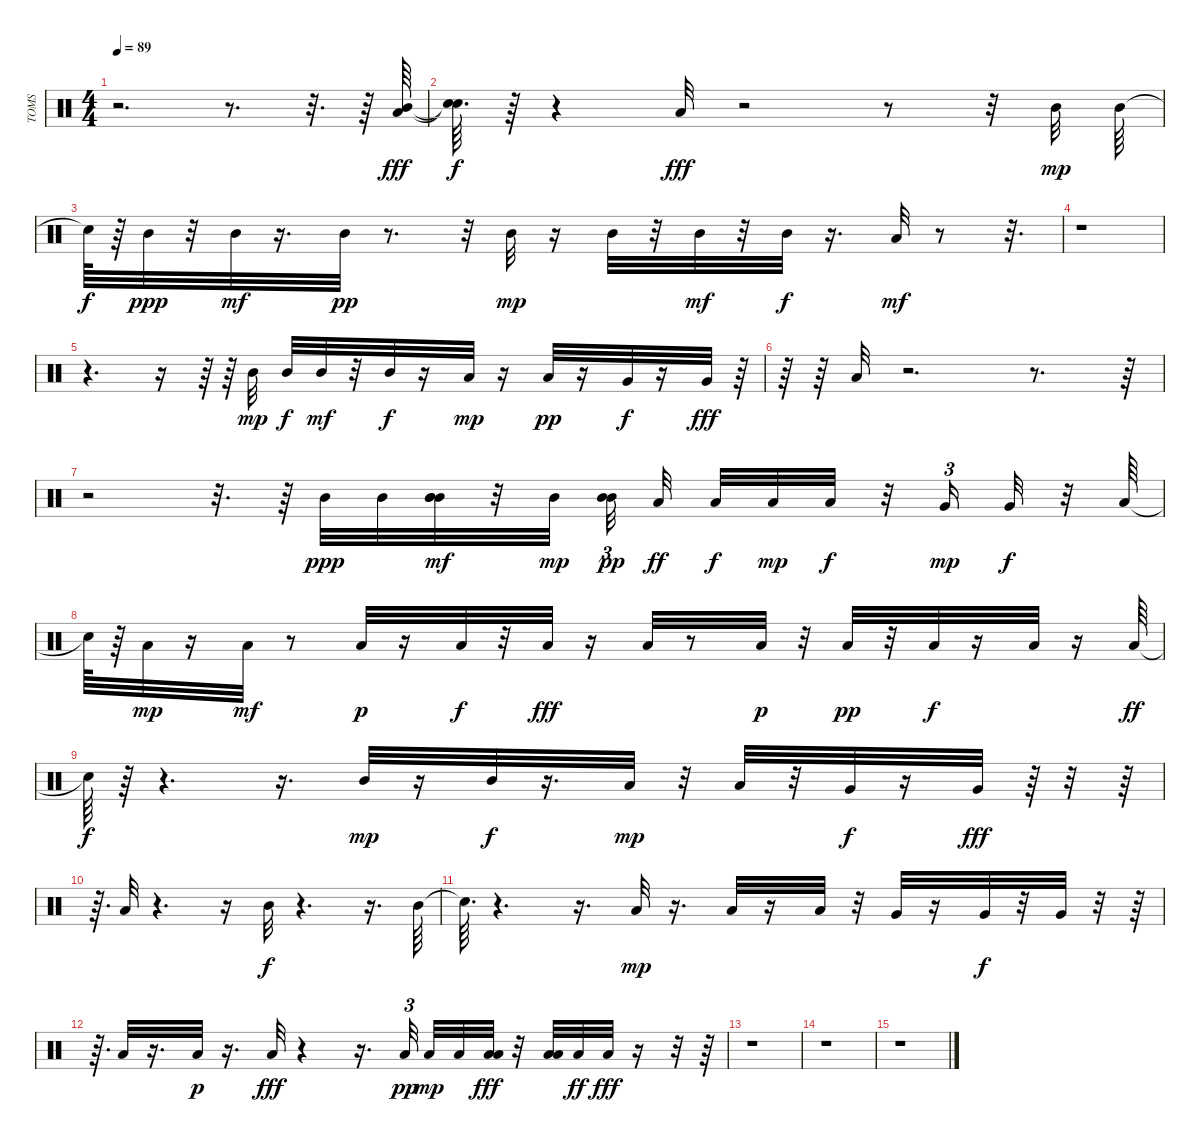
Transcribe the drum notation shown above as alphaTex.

\track ("TOMS" "TOMS") {instrument percussion}
\staff {score}
\articulation defaults
\ts (4 4)
\tempo 89
\clef neutral
\ks c
r.2{d dy f} r.8{d} r.32{d} r.64 ("Mid Tom (hit)" "Low Floor Tom (hit)").64{dy fff volume 15} |
("Snare (hit)"{t} "Snare (hit)"{t}).64{d dy f} r.64 r.4 "Low Floor Tom (hit)".32{dy fff volume 14} r.2 r.8 r.32 "Mid Tom (hit)".32{dy mp volume 14} "Mid Tom (hit)".64{volume 14} |
"Snare (hit)"{t}.64{dy f} r.64 "Mid Tom (hit)".32{dy ppp} r.32 "Mid Tom (hit)".32{dy mf} r.16{d} "Mid Tom (hit)".32{dy pp volume 14} r.8{d} r.32 "Mid Tom (hit)".32{dy mp volume 13} r.16 "Mid Tom (hit)".32{volume 13} r.32 "Mid Tom (hit)".32{dy mf} r.32 "Mid Tom (hit)".32{dy f volume 13} r.16{d} "Low Tom (hit)".32{dy mf volume 13} r.8 r.32{d} |
r.1 |
r.4{d} r.16 r.64 r.64 "Mid Tom (hit)".32{dy mp volume 11} "Mid Tom (hit)".32{dy f} "Mid Tom (hit)".32{dy mf volume 11} r.32 "Mid Tom (hit)".32{dy f} r.16 "Low Tom (hit)".32{dy mp volume 11} r.16 "Low Tom (hit)".32{dy pp volume 10} r.16 "Very Low Tom (hit)".32{dy f volume 10} r.16 "Very Low Tom (hit)".32{dy fff} r.64 |
r.64 r.64 "Low Floor Tom (hit)".32{volume 10} r.2{d} r.8{d} r.64 |
r.2 r.32{d} r.64 "Mid Tom (hit)".32{dy ppp volume 8} "Mid Tom (hit)".32 ("Mid Tom (hit)" "Mid Tom (hit)" "Mid Tom (hit)").32{dy mf} r.32 "Mid Tom (hit)".32{dy mp beam splitsecondary} ("Mid Tom (hit)" "Mid Tom (hit)").32{tu (3 2) dy pp} "Low Tom (hit)".32{dy ff volume 8} "Low Tom (hit)".32{dy f} "Low Tom (hit)".32{dy mp} "Low Tom (hit)".32{dy f} r.32 "Very Low Tom (hit)".16{tu (3 2) dy mp volume 8} "Very Low Tom (hit)".32{dy f} r.32 "Low Floor Tom (hit)".64{volume 8} |
"Snare (hit)"{t}.64 r.64 "Low Floor Tom (hit)".32{dy mp} r.16 "Low Floor Tom (hit)".32{dy mf volume 8} r.8 "Low Floor Tom (hit)".32{dy p volume 8} r.16 "Low Floor Tom (hit)".32{dy f volume 8} r.32 "Low Floor Tom (hit)".32{dy fff volume 8} r.16 "Low Floor Tom (hit)".32{volume 7} r.8 "Low Floor Tom (hit)".32{dy p volume 7} r.32 "Low Floor Tom (hit)".32{dy pp volume 7} r.32 "Low Floor Tom (hit)".32{dy f} r.16 "Low Floor Tom (hit)".32{volume 7} r.16 "Low Floor Tom (hit)".64{dy ff volume 7} |
"Snare (hit)"{t}.64{dy f} r.64 r.4{d} r.16{d} "Mid Tom (hit)".32{dy mp volume 6} r.16 "Mid Tom (hit)".32{dy f} r.16{d} "Low Tom (hit)".32{dy mp volume 6} r.32 "Low Tom (hit)".32{volume 6} r.32 "Very Low Tom (hit)".32{dy f volume 6} r.16 "Very Low Tom (hit)".32{dy fff} r.64 r.32 r.64 |
r.64{d} "Low Floor Tom (hit)".32{volume 6} r.4{d} r.16 "Mid Tom (hit)".32{dy f volume 5} r.4{d} r.16{d} "Mid Tom (hit)".64{volume 5} |
"Snare (hit)"{t}.64{d} r.4{d} r.16{d} "Low Tom (hit)".32{dy mp volume 4} r.16{d} "Low Tom (hit)".32{volume 4} r.16 "Low Tom (hit)".32{volume 4} r.32 "Very Low Tom (hit)".32 r.16 "Very Low Tom (hit)".32{dy f volume 4} r.32 "Very Low Tom (hit)".32{volume 4} r.32 r.64 |
r.64{d} "Low Floor Tom (hit)".32{volume 3} r.16{d} "Low Floor Tom (hit)".32{dy p volume 3} r.16{d} "Low Floor Tom (hit)".32{dy fff volume 3} r.4 r.16{d} "Low Floor Tom (hit)".32{tu (3 2) dy pp volume 3 beam splitsecondary} "Low Floor Tom (hit)".32{dy mp} "Low Floor Tom (hit)".32{volume 3} ("Low Floor Tom (hit)" "Low Floor Tom (hit)").32{dy fff} r.32 ("Low Floor Tom (hit)" "Low Floor Tom (hit)").32 "Low Floor Tom (hit)".32{dy ff} "Low Floor Tom (hit)".32{dy fff} r.16 r.32 r.64 |
r.1 |
r.1 |
r.1
